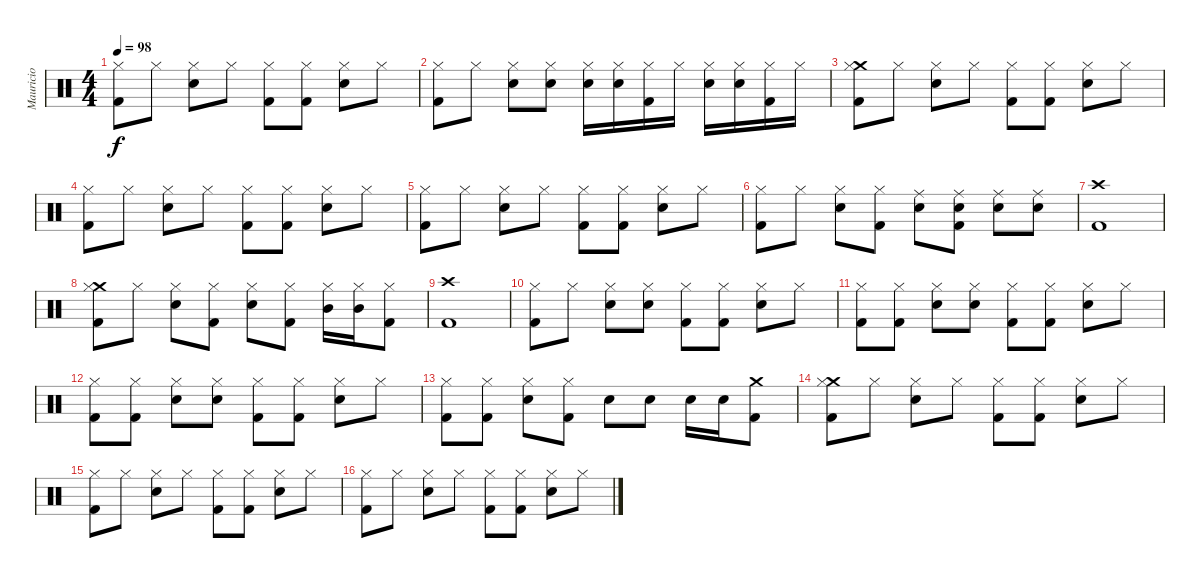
\track ("Mauricio" "Mauricio") {instrument percussion}
\staff {score}
\articulation defaults
\ts (4 4)
\tempo 98
\clef neutral
\ks c
("Hi-Hat (closed)" "Kick (hit) 2").8{dy f} "Hi-Hat (closed)".8 ("Hi-Hat (closed)" "Snare (hit) 2").8 "Hi-Hat (closed)".8 ("Hi-Hat (closed)" "Kick (hit) 2").8 ("Hi-Hat (closed)" "Kick (hit) 2").8 ("Hi-Hat (closed)" "Snare (hit) 2").8 "Hi-Hat (closed)".8 |
("Hi-Hat (closed)" "Kick (hit) 2").8 "Hi-Hat (closed)".8 ("Hi-Hat (closed)" "Snare (hit) 2").8 ("Hi-Hat (closed)" "Snare (hit) 2").8 ("Hi-Hat (closed)" "Snare (hit) 2").16 ("Hi-Hat (closed)" "Snare (hit) 2").16 ("Hi-Hat (closed)" "Kick (hit) 2").16 "Hi-Hat (closed)".16 ("Hi-Hat (closed)" "Snare (hit) 2").16 ("Hi-Hat (closed)" "Snare (hit) 2").16 ("Hi-Hat (closed)" "Kick (hit) 2").16 "Hi-Hat (closed)".16 |
("Crash medium (hit)" "Hi-Hat (closed)" "Kick (hit) 2").8 "Hi-Hat (closed)".8 ("Hi-Hat (closed)" "Snare (hit) 2").8 "Hi-Hat (closed)".8 ("Hi-Hat (closed)" "Kick (hit) 2").8 ("Hi-Hat (closed)" "Kick (hit) 2").8 ("Hi-Hat (closed)" "Snare (hit) 2").8 "Hi-Hat (closed)".8 |
("Hi-Hat (closed)" "Kick (hit) 2").8 "Hi-Hat (closed)".8 ("Hi-Hat (closed)" "Snare (hit) 2").8 "Hi-Hat (closed)".8 ("Hi-Hat (closed)" "Kick (hit) 2").8 ("Hi-Hat (closed)" "Kick (hit) 2").8 ("Hi-Hat (closed)" "Snare (hit) 2").8 "Hi-Hat (closed)".8 |
("Hi-Hat (closed)" "Kick (hit) 2").8 "Hi-Hat (closed)".8 ("Hi-Hat (closed)" "Snare (hit) 2").8 "Hi-Hat (closed)".8 ("Hi-Hat (closed)" "Kick (hit) 2").8 ("Hi-Hat (closed)" "Kick (hit) 2").8 ("Hi-Hat (closed)" "Snare (hit) 2").8 "Hi-Hat (closed)".8 |
("Hi-Hat (closed)" "Kick (hit) 2").8 "Hi-Hat (closed)".8 ("Hi-Hat (closed)" "Snare (hit) 2").8 ("Hi-Hat (closed)" "Kick (hit) 2").8 ("Ride (middle)" "Snare (hit) 2").8 ("Ride (middle)" "Snare (hit) 2" "Kick (hit) 2").8 ("Ride (middle)" "Snare (hit) 2").8 ("Ride (middle)" "Snare (hit) 2").8 |
("Crash high (hit)" "Kick (hit) 2").1 |
("Crash medium (hit)" "Hi-Hat (closed)" "Kick (hit) 2").8 "Hi-Hat (closed)".8 ("Hi-Hat (closed)" "Snare (hit) 2").8 ("Hi-Hat (closed)" "Kick (hit) 2").8 ("Hi-Hat (closed)" "Snare (hit) 2").8 ("Hi-Hat (closed)" "Kick (hit) 2").8 ("Hi-Hat (closed)" "Mid Tom (hit)").16 ("Hi-Hat (closed)" "Mid Tom (hit)").16 ("Hi-Hat (closed)" "Kick (hit) 2").8 |
("Crash high (hit)" "Kick (hit) 2").1 |
("Hi-Hat (closed)" "Kick (hit) 2").8 "Hi-Hat (closed)".8 ("Hi-Hat (closed)" "Snare (hit) 2").8 ("Hi-Hat (closed)" "Snare (hit) 2").8 ("Hi-Hat (closed)" "Kick (hit) 2").8 ("Hi-Hat (closed)" "Kick (hit) 2").8 ("Hi-Hat (closed)" "Snare (hit) 2").8 "Hi-Hat (closed)".8 |
("Hi-Hat (closed)" "Kick (hit) 2").8 ("Hi-Hat (closed)" "Kick (hit) 2").8 ("Hi-Hat (closed)" "Snare (hit) 2").8 ("Hi-Hat (closed)" "Snare (hit) 2").8 ("Hi-Hat (closed)" "Kick (hit) 2").8 ("Hi-Hat (closed)" "Kick (hit) 2").8 ("Hi-Hat (closed)" "Snare (hit) 2").8 "Hi-Hat (closed)".8 |
("Hi-Hat (closed)" "Kick (hit) 2").8 ("Hi-Hat (closed)" "Kick (hit) 2").8 ("Hi-Hat (closed)" "Snare (hit) 2").8 ("Hi-Hat (closed)" "Snare (hit) 2").8 ("Hi-Hat (closed)" "Kick (hit) 2").8 ("Hi-Hat (closed)" "Kick (hit) 2").8 ("Hi-Hat (closed)" "Snare (hit) 2").8 "Hi-Hat (closed)".8 |
("Hi-Hat (closed)" "Kick (hit) 2").8 ("Hi-Hat (closed)" "Kick (hit) 2").8 ("Hi-Hat (closed)" "Snare (hit) 2").8 ("Hi-Hat (closed)" "Kick (hit) 2").8 "Snare (hit) 2".8 "Snare (hit) 2".8 "Snare (hit) 2".16 "Snare (hit) 2".16 ("Crash medium (hit)" "Kick (hit) 2").8 |
("Crash medium (hit)" "Hi-Hat (closed)" "Kick (hit) 2").8 "Hi-Hat (closed)".8 ("Hi-Hat (closed)" "Snare (hit) 2").8 "Hi-Hat (closed)".8 ("Hi-Hat (closed)" "Kick (hit) 2").8 ("Hi-Hat (closed)" "Kick (hit) 2").8 ("Hi-Hat (closed)" "Snare (hit) 2").8 "Hi-Hat (closed)".8 |
("Hi-Hat (closed)" "Kick (hit) 2").8 "Hi-Hat (closed)".8 ("Hi-Hat (closed)" "Snare (hit) 2").8 "Hi-Hat (closed)".8 ("Hi-Hat (closed)" "Kick (hit) 2").8 ("Hi-Hat (closed)" "Kick (hit) 2").8 ("Hi-Hat (closed)" "Snare (hit) 2").8 "Hi-Hat (closed)".8 |
("Hi-Hat (closed)" "Kick (hit) 2").8 "Hi-Hat (closed)".8 ("Hi-Hat (closed)" "Snare (hit) 2").8 "Hi-Hat (closed)".8 ("Hi-Hat (closed)" "Kick (hit) 2").8 ("Hi-Hat (closed)" "Kick (hit) 2").8 ("Hi-Hat (closed)" "Snare (hit) 2").8 "Hi-Hat (closed)".8
